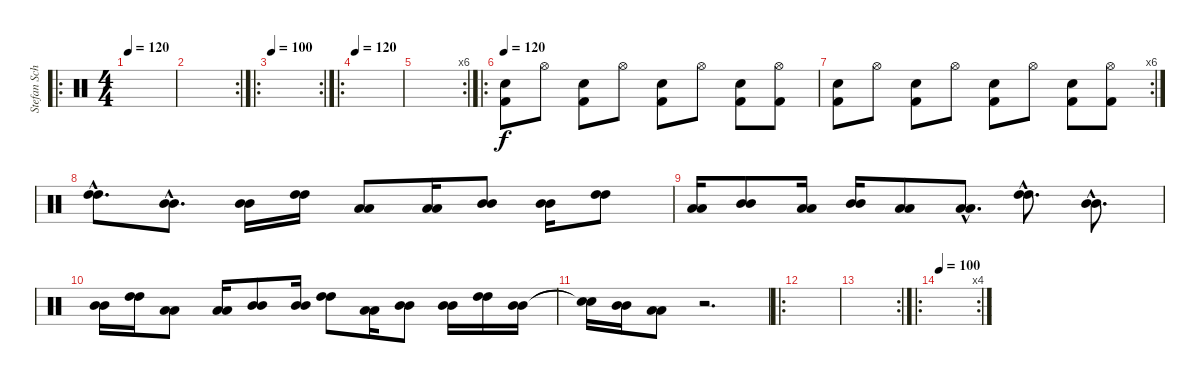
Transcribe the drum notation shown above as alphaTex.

\track ("Stefan Schwarzmann" "Stefan Sch") {instrument percussion}
\staff {score}
\articulation defaults
\ro
\ts (4 4)
\tempo 120
\clef neutral
\ks c
|
\rc 2
|
\ro
\rc 2
\tempo 100
|
\ro
\tempo 120
|
\rc 6
|
\ro
\tempo 120
("Electric Snare (hit)" "Kick (hit) 2").8 "Hi-Hat (open)".8 ("Electric Snare (hit)" "Kick (hit) 2").8 "Hi-Hat (open)".8 ("Electric Snare (hit)" "Kick (hit) 2").8 "Hi-Hat (open)".8 ("Electric Snare (hit)" "Kick (hit) 2").8 ("Hi-Hat (open)" "Kick (hit) 2").8 |
\rc 6
("Electric Snare (hit)" "Kick (hit) 2").8 "Hi-Hat (open)".8 ("Electric Snare (hit)" "Kick (hit) 2").8 "Hi-Hat (open)".8 ("Electric Snare (hit)" "Kick (hit) 2").8 "Hi-Hat (open)".8 ("Electric Snare (hit)" "Kick (hit) 2").8 ("Hi-Hat (open)" "Kick (hit) 2").8 |
("High Tom (hit)"{hac} "High Tom (hit)"{hac}).8{d} ("Mid Tom (hit)"{hac} "Mid Tom (hit)"{hac}).8{d} ("Mid Tom (hit)" "Mid Tom (hit)").16 ("High Tom (hit)" "High Tom (hit)").16 ("Low Tom (hit)" "Low Tom (hit)").8 ("Low Tom (hit)" "Low Tom (hit)").16 ("Mid Tom (hit)" "Mid Tom (hit)").8 ("Mid Tom (hit)" "Mid Tom (hit)").16 ("High Tom (hit)" "High Tom (hit)").8 |
("Low Tom (hit)" "Low Tom (hit)").16 ("Mid Tom (hit)" "Mid Tom (hit)").8 ("Low Tom (hit)" "Low Tom (hit)").16 ("Mid Tom (hit)" "Mid Tom (hit)").16 ("Low Tom (hit)" "Low Tom (hit)").8 ("Low Tom (hit)"{hac} "Low Tom (hit)"{hac}).8{d} ("High Tom (hit)"{hac} "High Tom (hit)"{hac}).8{d} ("Mid Tom (hit)"{hac} "Mid Tom (hit)"{hac}).8{d} |
("Mid Tom (hit)" "Mid Tom (hit)").16 ("High Tom (hit)" "High Tom (hit)").16 ("Low Tom (hit)" "Low Tom (hit)").8 ("Low Tom (hit)" "Low Tom (hit)").16 ("Mid Tom (hit)" "Mid Tom (hit)").8 ("Mid Tom (hit)" "Mid Tom (hit)").16 ("High Tom (hit)" "High Tom (hit)").8 ("Low Tom (hit)" "Low Tom (hit)").16 ("Mid Tom (hit)" "Mid Tom (hit)").8 ("Mid Tom (hit)" "Mid Tom (hit)").16 ("High Tom (hit)" "High Tom (hit)").16 ("Mid Tom (hit)" "Mid Tom (hit)").16 |
("Snare (hit)"{t} "Snare (hit)"{t}).16 ("Mid Tom (hit)" "Mid Tom (hit)").16 ("Low Tom (hit)" "Low Tom (hit)").8 r.2{d} |
\ro
|
\rc 2
|
\ro
\rc 4
\tempo 100
